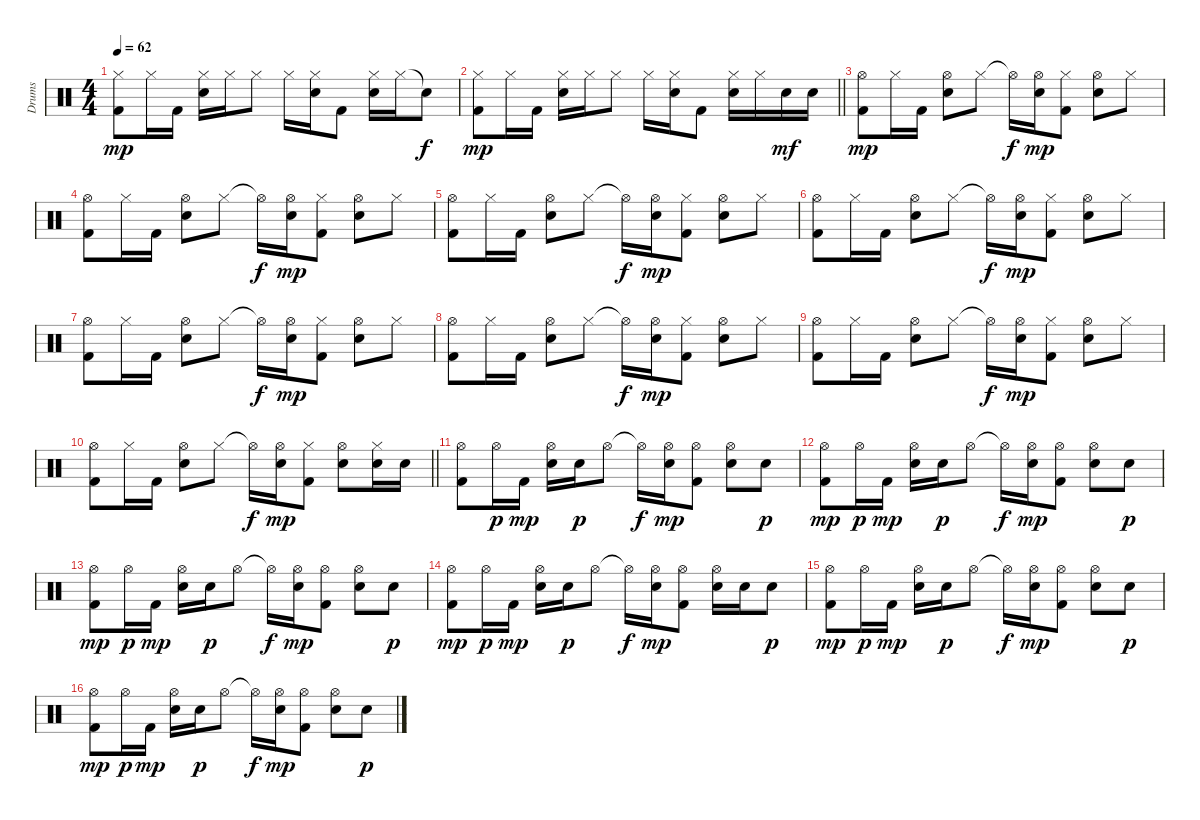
\track ("Drums" "Drums") {instrument percussion}
\staff {score}
\articulation defaults
\ts (4 4)
\tempo 62
\clef neutral
\ks c
("Hi-Hat (closed)" "Kick (hit) 2").8{dy mp} "Hi-Hat (closed)".16 "Kick (hit) 2".16 ("Hi-Hat (closed)" "Snare (hit) 2").16 "Hi-Hat (closed)".16 "Hi-Hat (closed)".8 "Hi-Hat (closed)".16 ("Hi-Hat (closed)" "Snare (hit) 2").16 "Kick (hit) 2".8 ("Hi-Hat (closed)" "Snare (hit) 2").16 "Hi-Hat (closed)".16 "Snare (hit)"{t}.8{dy f} |
\barLineRight lightlight
("Hi-Hat (closed)" "Kick (hit) 2").8{dy mp} "Hi-Hat (closed)".16 "Kick (hit) 2".16 ("Hi-Hat (closed)" "Snare (hit) 2").16 "Hi-Hat (closed)".16 "Hi-Hat (closed)".8 "Hi-Hat (closed)".16 ("Hi-Hat (closed)" "Snare (hit) 2").16 "Kick (hit) 2".8 ("Hi-Hat (closed)" "Snare (hit) 2").16 "Hi-Hat (closed)".16 "Snare (hit) 2".16{dy mf} "Snare (hit) 2".16 |
\section ("" "")
("Hi-Hat (open)" "Kick (hit) 2").8{dy mp} "Hi-Hat (closed)".16 "Kick (hit) 2".16 ("Hi-Hat (open)" "Snare (hit) 2").8 "Hi-Hat (closed)".8 "Hi-Hat (open)"{t}.16{dy f} ("Hi-Hat (open)" "Snare (hit) 2").16{dy mp} ("Hi-Hat (closed)" "Kick (hit) 2").8 ("Hi-Hat (open)" "Snare (hit) 2").8 "Hi-Hat (closed)".8 |
("Hi-Hat (open)" "Kick (hit) 2").8 "Hi-Hat (closed)".16 "Kick (hit) 2".16 ("Hi-Hat (open)" "Snare (hit) 2").8 "Hi-Hat (closed)".8 "Hi-Hat (open)"{t}.16{dy f} ("Hi-Hat (open)" "Snare (hit) 2").16{dy mp} ("Hi-Hat (closed)" "Kick (hit) 2").8 ("Hi-Hat (open)" "Snare (hit) 2").8 "Hi-Hat (closed)".8 |
("Hi-Hat (open)" "Kick (hit) 2").8 "Hi-Hat (closed)".16 "Kick (hit) 2".16 ("Hi-Hat (open)" "Snare (hit) 2").8 "Hi-Hat (closed)".8 "Hi-Hat (open)"{t}.16{dy f} ("Hi-Hat (open)" "Snare (hit) 2").16{dy mp} ("Hi-Hat (closed)" "Kick (hit) 2").8 ("Hi-Hat (open)" "Snare (hit) 2").8 "Hi-Hat (closed)".8 |
("Hi-Hat (open)" "Kick (hit) 2").8 "Hi-Hat (closed)".16 "Kick (hit) 2".16 ("Hi-Hat (open)" "Snare (hit) 2").8 "Hi-Hat (closed)".8 "Hi-Hat (open)"{t}.16{dy f} ("Hi-Hat (open)" "Snare (hit) 2").16{dy mp} ("Hi-Hat (closed)" "Kick (hit) 2").8 ("Hi-Hat (open)" "Snare (hit) 2").8 "Hi-Hat (closed)".8 |
("Hi-Hat (open)" "Kick (hit) 2").8 "Hi-Hat (closed)".16 "Kick (hit) 2".16 ("Hi-Hat (open)" "Snare (hit) 2").8 "Hi-Hat (closed)".8 "Hi-Hat (open)"{t}.16{dy f} ("Hi-Hat (open)" "Snare (hit) 2").16{dy mp} ("Hi-Hat (closed)" "Kick (hit) 2").8 ("Hi-Hat (open)" "Snare (hit) 2").8 "Hi-Hat (closed)".8 |
("Hi-Hat (open)" "Kick (hit) 2").8 "Hi-Hat (closed)".16 "Kick (hit) 2".16 ("Hi-Hat (open)" "Snare (hit) 2").8 "Hi-Hat (closed)".8 "Hi-Hat (open)"{t}.16{dy f} ("Hi-Hat (open)" "Snare (hit) 2").16{dy mp} ("Hi-Hat (closed)" "Kick (hit) 2").8 ("Hi-Hat (open)" "Snare (hit) 2").8 "Hi-Hat (closed)".8 |
("Hi-Hat (open)" "Kick (hit) 2").8 "Hi-Hat (closed)".16 "Kick (hit) 2".16 ("Hi-Hat (open)" "Snare (hit) 2").8 "Hi-Hat (closed)".8 "Hi-Hat (open)"{t}.16{dy f} ("Hi-Hat (open)" "Snare (hit) 2").16{dy mp} ("Hi-Hat (closed)" "Kick (hit) 2").8 ("Hi-Hat (open)" "Snare (hit) 2").8 "Hi-Hat (closed)".8 |
\barLineRight lightlight
("Hi-Hat (open)" "Kick (hit) 2").8 "Hi-Hat (closed)".16 "Kick (hit) 2".16 ("Hi-Hat (open)" "Snare (hit) 2").8 "Hi-Hat (closed)".8 "Hi-Hat (open)"{t}.16{dy f} ("Hi-Hat (open)" "Snare (hit) 2").16{dy mp} ("Hi-Hat (closed)" "Kick (hit) 2").8 ("Hi-Hat (open)" "Snare (hit) 2").8 ("Hi-Hat (closed)" "Snare (hit) 2").16 "Snare (hit) 2".16 |
\section ("" "")
("Hi-Hat (open)" "Kick (hit) 2").8 "Hi-Hat (open)".16{dy p} "Kick (hit) 2".16{dy mp} ("Hi-Hat (open)" "Snare (hit) 2").16 "Snare (hit) 2".16{dy p} "Hi-Hat (open)".8 "Hi-Hat (open)"{t}.16{dy f} ("Hi-Hat (open)" "Snare (hit) 2").16{dy mp} ("Hi-Hat (open)" "Kick (hit) 2").8 ("Hi-Hat (open)" "Snare (hit) 2").8 "Snare (hit)".8{dy p} |
("Hi-Hat (open)" "Kick (hit) 2").8{dy mp} "Hi-Hat (open)".16{dy p} "Kick (hit) 2".16{dy mp} ("Hi-Hat (open)" "Snare (hit) 2").16 "Snare (hit) 2".16{dy p} "Hi-Hat (open)".8 "Hi-Hat (open)"{t}.16{dy f} ("Hi-Hat (open)" "Snare (hit) 2").16{dy mp} ("Hi-Hat (open)" "Kick (hit) 2").8 ("Hi-Hat (open)" "Snare (hit) 2").8 "Snare (hit)".8{dy p} |
("Hi-Hat (open)" "Kick (hit) 2").8{dy mp} "Hi-Hat (open)".16{dy p} "Kick (hit) 2".16{dy mp} ("Hi-Hat (open)" "Snare (hit) 2").16 "Snare (hit) 2".16{dy p} "Hi-Hat (open)".8 "Hi-Hat (open)"{t}.16{dy f} ("Hi-Hat (open)" "Snare (hit) 2").16{dy mp} ("Hi-Hat (open)" "Kick (hit) 2").8 ("Hi-Hat (open)" "Snare (hit) 2").8 "Snare (hit)".8{dy p} |
("Hi-Hat (open)" "Kick (hit) 2").8{dy mp} "Hi-Hat (open)".16{dy p} "Kick (hit) 2".16{dy mp} ("Hi-Hat (open)" "Snare (hit) 2").16 "Snare (hit) 2".16{dy p} "Hi-Hat (open)".8 "Hi-Hat (open)"{t}.16{dy f} ("Hi-Hat (open)" "Snare (hit) 2").16{dy mp} ("Hi-Hat (open)" "Kick (hit) 2").8 ("Hi-Hat (open)" "Snare (hit) 2").16 "Snare (hit) 2".16 "Snare (hit)".8{dy p} |
("Hi-Hat (open)" "Kick (hit) 2").8{dy mp} "Hi-Hat (open)".16{dy p} "Kick (hit) 2".16{dy mp} ("Hi-Hat (open)" "Snare (hit) 2").16 "Snare (hit) 2".16{dy p} "Hi-Hat (open)".8 "Hi-Hat (open)"{t}.16{dy f} ("Hi-Hat (open)" "Snare (hit) 2").16{dy mp} ("Hi-Hat (open)" "Kick (hit) 2").8 ("Hi-Hat (open)" "Snare (hit) 2").8 "Snare (hit)".8{dy p} |
("Hi-Hat (open)" "Kick (hit) 2").8{dy mp} "Hi-Hat (open)".16{dy p} "Kick (hit) 2".16{dy mp} ("Hi-Hat (open)" "Snare (hit) 2").16 "Snare (hit) 2".16{dy p} "Hi-Hat (open)".8 "Hi-Hat (open)"{t}.16{dy f} ("Hi-Hat (open)" "Snare (hit) 2").16{dy mp} ("Hi-Hat (open)" "Kick (hit) 2").8 ("Hi-Hat (open)" "Snare (hit) 2").8 "Snare (hit)".8{dy p}
